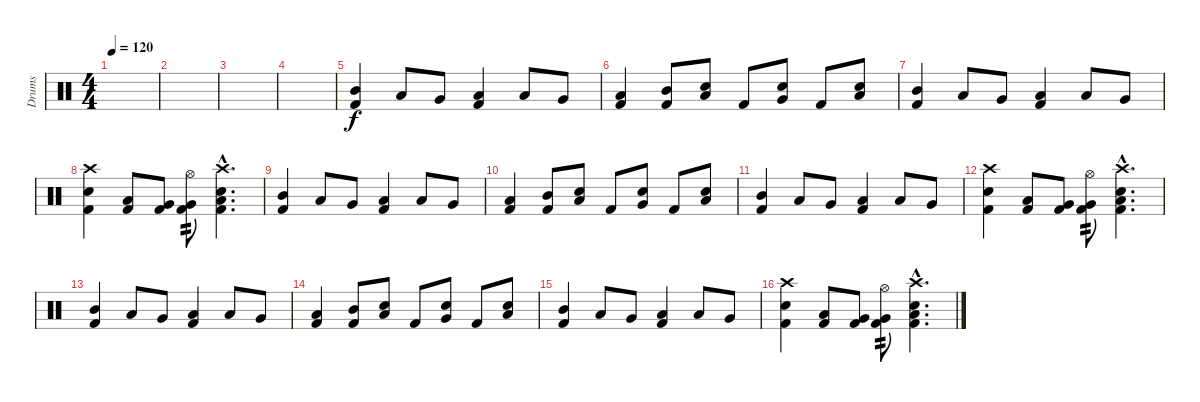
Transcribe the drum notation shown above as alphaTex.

\track ("Drums" "Drums") {instrument percussion}
\staff {score}
\articulation defaults
\ts (4 4)
\tempo 120
\clef neutral
\ks c
|
|
|
|
("Mid Tom (hit)" "Kick (hit) 2").4 "Low Tom (hit)".8 "Very Low Tom (hit)".8 ("Low Floor Tom (hit)" "Kick (hit) 2").4 "Low Tom (hit)".8 "Very Low Tom (hit)".8 |
("Low Floor Tom (hit)" "Kick (hit) 2").4 ("Mid Tom (hit)" "Kick (hit) 2").8 ("Low Tom (hit)" "Snare (hit) 2").8 "Kick (hit) 2".8 ("Very Low Tom (hit)" "Snare (hit) 2").8 "Kick (hit) 2".8 ("Low Floor Tom (hit)" "Snare (hit) 2").8 |
("Mid Tom (hit)" "Kick (hit) 2").4 "Low Tom (hit)".8 "Very Low Tom (hit)".8 ("Low Floor Tom (hit)" "Kick (hit) 2").4 "Low Tom (hit)".8 "Very Low Tom (hit)".8 |
("Crash high (hit)" "Snare (hit) 2" "Kick (hit) 2").4 ("Low Tom (hit)" "Kick (hit) 2").8 ("Very Low Tom (hit)" "Kick (hit) 2").8 ("Hi-Hat (open)" "Very Low Tom (hit)" "Kick (hit) 2").8{tp 2} ("Crash high (hit)"{hac} "Snare (hit) 2"{hac} "Low Floor Tom (hit)"{hac} "Kick (hit) 2"{hac}).4{d} |
("Mid Tom (hit)" "Kick (hit) 2").4 "Low Tom (hit)".8 "Very Low Tom (hit)".8 ("Low Floor Tom (hit)" "Kick (hit) 2").4 "Low Tom (hit)".8 "Very Low Tom (hit)".8 |
("Low Floor Tom (hit)" "Kick (hit) 2").4 ("Mid Tom (hit)" "Kick (hit) 2").8 ("Low Tom (hit)" "Snare (hit) 2").8 "Kick (hit) 2".8 ("Very Low Tom (hit)" "Snare (hit) 2").8 "Kick (hit) 2".8 ("Low Floor Tom (hit)" "Snare (hit) 2").8 |
("Mid Tom (hit)" "Kick (hit) 2").4 "Low Tom (hit)".8 "Very Low Tom (hit)".8 ("Low Floor Tom (hit)" "Kick (hit) 2").4 "Low Tom (hit)".8 "Very Low Tom (hit)".8 |
("Crash high (hit)" "Snare (hit) 2" "Kick (hit) 2").4 ("Low Tom (hit)" "Kick (hit) 2").8 ("Very Low Tom (hit)" "Kick (hit) 2").8 ("Hi-Hat (open)" "Very Low Tom (hit)" "Kick (hit) 2").8{tp 2} ("Crash high (hit)"{hac} "Snare (hit) 2"{hac} "Low Floor Tom (hit)"{hac} "Kick (hit) 2"{hac}).4{d} |
("Mid Tom (hit)" "Kick (hit) 2").4 "Low Tom (hit)".8 "Very Low Tom (hit)".8 ("Low Floor Tom (hit)" "Kick (hit) 2").4 "Low Tom (hit)".8 "Very Low Tom (hit)".8 |
("Low Floor Tom (hit)" "Kick (hit) 2").4 ("Mid Tom (hit)" "Kick (hit) 2").8 ("Low Tom (hit)" "Snare (hit) 2").8 "Kick (hit) 2".8 ("Very Low Tom (hit)" "Snare (hit) 2").8 "Kick (hit) 2".8 ("Low Floor Tom (hit)" "Snare (hit) 2").8 |
("Mid Tom (hit)" "Kick (hit) 2").4 "Low Tom (hit)".8 "Very Low Tom (hit)".8 ("Low Floor Tom (hit)" "Kick (hit) 2").4 "Low Tom (hit)".8 "Very Low Tom (hit)".8 |
("Crash high (hit)" "Snare (hit) 2" "Kick (hit) 2").4 ("Low Tom (hit)" "Kick (hit) 2").8 ("Very Low Tom (hit)" "Kick (hit) 2").8 ("Hi-Hat (open)" "Very Low Tom (hit)" "Kick (hit) 2").8{tp 2} ("Crash high (hit)"{hac} "Snare (hit) 2"{hac} "Low Floor Tom (hit)"{hac} "Kick (hit) 2"{hac}).4{d}
